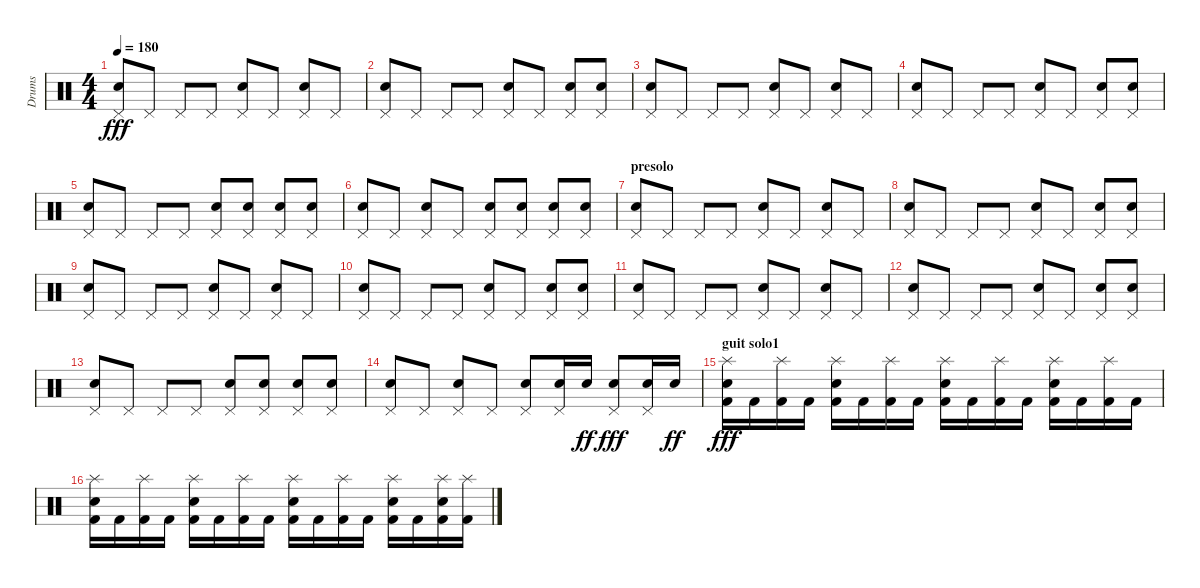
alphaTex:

\track ("Drums" "Drums") {instrument percussion}
\staff {score}
\articulation defaults
\ts (4 4)
\tempo 180
\clef neutral
\ks c
("Electric Snare (hit)" "Pedal Hi-Hat (hit)").8{dy fff} "Pedal Hi-Hat (hit)".8 "Pedal Hi-Hat (hit)".8 "Pedal Hi-Hat (hit)".8 ("Electric Snare (hit)" "Pedal Hi-Hat (hit)").8 "Pedal Hi-Hat (hit)".8 ("Electric Snare (hit)" "Pedal Hi-Hat (hit)").8 "Pedal Hi-Hat (hit)".8 |
("Electric Snare (hit)" "Pedal Hi-Hat (hit)").8 "Pedal Hi-Hat (hit)".8 "Pedal Hi-Hat (hit)".8 "Pedal Hi-Hat (hit)".8 ("Electric Snare (hit)" "Pedal Hi-Hat (hit)").8 "Pedal Hi-Hat (hit)".8 ("Electric Snare (hit)" "Pedal Hi-Hat (hit)").8 ("Electric Snare (hit)" "Pedal Hi-Hat (hit)").8 |
("Electric Snare (hit)" "Pedal Hi-Hat (hit)").8 "Pedal Hi-Hat (hit)".8 "Pedal Hi-Hat (hit)".8 "Pedal Hi-Hat (hit)".8 ("Electric Snare (hit)" "Pedal Hi-Hat (hit)").8 "Pedal Hi-Hat (hit)".8 ("Electric Snare (hit)" "Pedal Hi-Hat (hit)").8 "Pedal Hi-Hat (hit)".8 |
("Electric Snare (hit)" "Pedal Hi-Hat (hit)").8 "Pedal Hi-Hat (hit)".8 "Pedal Hi-Hat (hit)".8 "Pedal Hi-Hat (hit)".8 ("Electric Snare (hit)" "Pedal Hi-Hat (hit)").8 "Pedal Hi-Hat (hit)".8 ("Electric Snare (hit)" "Pedal Hi-Hat (hit)").8 ("Electric Snare (hit)" "Pedal Hi-Hat (hit)").8 |
("Electric Snare (hit)" "Pedal Hi-Hat (hit)").8 "Pedal Hi-Hat (hit)".8 "Pedal Hi-Hat (hit)".8 "Pedal Hi-Hat (hit)".8 ("Electric Snare (hit)" "Pedal Hi-Hat (hit)").8 ("Electric Snare (hit)" "Pedal Hi-Hat (hit)").8 ("Electric Snare (hit)" "Pedal Hi-Hat (hit)").8 ("Electric Snare (hit)" "Pedal Hi-Hat (hit)").8 |
("Electric Snare (hit)" "Pedal Hi-Hat (hit)").8 "Pedal Hi-Hat (hit)".8 ("Electric Snare (hit)" "Pedal Hi-Hat (hit)").8 "Pedal Hi-Hat (hit)".8 ("Electric Snare (hit)" "Pedal Hi-Hat (hit)").8 ("Electric Snare (hit)" "Pedal Hi-Hat (hit)").8 ("Electric Snare (hit)" "Pedal Hi-Hat (hit)").8 ("Electric Snare (hit)" "Pedal Hi-Hat (hit)").8 |
\section ("" "presolo")
("Electric Snare (hit)" "Pedal Hi-Hat (hit)").8 "Pedal Hi-Hat (hit)".8 "Pedal Hi-Hat (hit)".8 "Pedal Hi-Hat (hit)".8 ("Electric Snare (hit)" "Pedal Hi-Hat (hit)").8 "Pedal Hi-Hat (hit)".8 ("Electric Snare (hit)" "Pedal Hi-Hat (hit)").8 "Pedal Hi-Hat (hit)".8 |
("Electric Snare (hit)" "Pedal Hi-Hat (hit)").8 "Pedal Hi-Hat (hit)".8 "Pedal Hi-Hat (hit)".8 "Pedal Hi-Hat (hit)".8 ("Electric Snare (hit)" "Pedal Hi-Hat (hit)").8 "Pedal Hi-Hat (hit)".8 ("Electric Snare (hit)" "Pedal Hi-Hat (hit)").8 ("Electric Snare (hit)" "Pedal Hi-Hat (hit)").8 |
("Electric Snare (hit)" "Pedal Hi-Hat (hit)").8 "Pedal Hi-Hat (hit)".8 "Pedal Hi-Hat (hit)".8 "Pedal Hi-Hat (hit)".8 ("Electric Snare (hit)" "Pedal Hi-Hat (hit)").8 "Pedal Hi-Hat (hit)".8 ("Electric Snare (hit)" "Pedal Hi-Hat (hit)").8 "Pedal Hi-Hat (hit)".8 |
("Electric Snare (hit)" "Pedal Hi-Hat (hit)").8 "Pedal Hi-Hat (hit)".8 "Pedal Hi-Hat (hit)".8 "Pedal Hi-Hat (hit)".8 ("Electric Snare (hit)" "Pedal Hi-Hat (hit)").8 "Pedal Hi-Hat (hit)".8 ("Electric Snare (hit)" "Pedal Hi-Hat (hit)").8 ("Electric Snare (hit)" "Pedal Hi-Hat (hit)").8 |
("Electric Snare (hit)" "Pedal Hi-Hat (hit)").8 "Pedal Hi-Hat (hit)".8 "Pedal Hi-Hat (hit)".8 "Pedal Hi-Hat (hit)".8 ("Electric Snare (hit)" "Pedal Hi-Hat (hit)").8 "Pedal Hi-Hat (hit)".8 ("Electric Snare (hit)" "Pedal Hi-Hat (hit)").8 "Pedal Hi-Hat (hit)".8 |
("Electric Snare (hit)" "Pedal Hi-Hat (hit)").8 "Pedal Hi-Hat (hit)".8 "Pedal Hi-Hat (hit)".8 "Pedal Hi-Hat (hit)".8 ("Electric Snare (hit)" "Pedal Hi-Hat (hit)").8 "Pedal Hi-Hat (hit)".8 ("Electric Snare (hit)" "Pedal Hi-Hat (hit)").8 ("Electric Snare (hit)" "Pedal Hi-Hat (hit)").8 |
("Electric Snare (hit)" "Pedal Hi-Hat (hit)").8 "Pedal Hi-Hat (hit)".8 "Pedal Hi-Hat (hit)".8 "Pedal Hi-Hat (hit)".8 ("Electric Snare (hit)" "Pedal Hi-Hat (hit)").8 ("Electric Snare (hit)" "Pedal Hi-Hat (hit)").8 ("Electric Snare (hit)" "Pedal Hi-Hat (hit)").8 ("Electric Snare (hit)" "Pedal Hi-Hat (hit)").8 |
("Electric Snare (hit)" "Pedal Hi-Hat (hit)").8 "Pedal Hi-Hat (hit)".8 ("Electric Snare (hit)" "Pedal Hi-Hat (hit)").8 "Pedal Hi-Hat (hit)".8 ("Electric Snare (hit)" "Pedal Hi-Hat (hit)").8 ("Electric Snare (hit)" "Pedal Hi-Hat (hit)").16 "Electric Snare (hit)".16{dy ff} ("Electric Snare (hit)" "Pedal Hi-Hat (hit)").8{dy fff} ("Electric Snare (hit)" "Pedal Hi-Hat (hit)").16 "Electric Snare (hit)".16{dy ff} |
\section ("" "guit solo1")
("Kick (hit) 2" "Electric Snare (hit)" "Splash (hit)").16{dy fff} "Kick (hit) 2".16 ("Kick (hit) 2" "Splash (hit)").16 "Kick (hit) 2".16 ("Kick (hit) 2" "Electric Snare (hit)" "Splash (hit)").16 "Kick (hit) 2".16 ("Kick (hit) 2" "Splash (hit)").16 "Kick (hit) 2".16 ("Kick (hit) 2" "Electric Snare (hit)" "Splash (hit)").16 "Kick (hit) 2".16 ("Kick (hit) 2" "Splash (hit)").16 "Kick (hit) 2".16 ("Kick (hit) 2" "Electric Snare (hit)" "Splash (hit)").16 "Kick (hit) 2".16 ("Kick (hit) 2" "Splash (hit)").16 "Kick (hit) 2".16 |
("Kick (hit) 2" "Electric Snare (hit)" "Splash (hit)").16 "Kick (hit) 2".16 ("Kick (hit) 2" "Splash (hit)").16 "Kick (hit) 2".16 ("Kick (hit) 2" "Electric Snare (hit)" "Splash (hit)").16 "Kick (hit) 2".16 ("Kick (hit) 2" "Splash (hit)").16 "Kick (hit) 2".16 ("Kick (hit) 2" "Electric Snare (hit)" "Splash (hit)").16 "Kick (hit) 2".16 ("Kick (hit) 2" "Splash (hit)").16 "Kick (hit) 2".16 ("Kick (hit) 2" "Electric Snare (hit)" "Splash (hit)").16 "Kick (hit) 2".16 ("Kick (hit) 2" "Electric Snare (hit)" "Splash (hit)").16 ("Kick (hit) 2" "Splash (hit)").16
